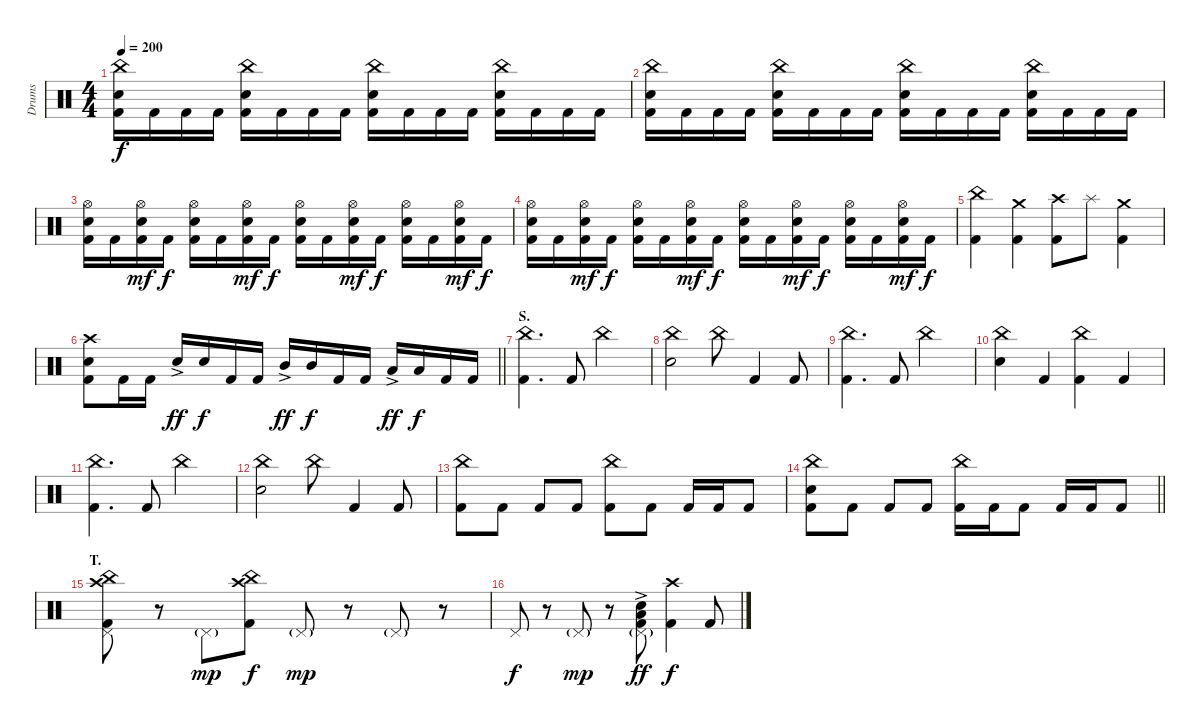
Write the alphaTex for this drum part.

\track ("Drums" "Drums") {instrument percussion}
\staff {score}
\articulation defaults
\ts (4 4)
\tempo 200
\clef neutral
\ks c
("China (hit)" "Electric Snare (hit)" "Kick (hit) 2").16{dy f} "Kick (hit) 2".16 "Kick (hit) 2".16 "Kick (hit) 2".16 ("China (hit)" "Electric Snare (hit)" "Kick (hit) 2").16 "Kick (hit) 2".16 "Kick (hit) 2".16 "Kick (hit) 2".16 ("China (hit)" "Electric Snare (hit)" "Kick (hit) 2").16 "Kick (hit) 2".16 "Kick (hit) 2".16 "Kick (hit) 2".16 ("China (hit)" "Electric Snare (hit)" "Kick (hit) 2").16 "Kick (hit) 2".16 "Kick (hit) 2".16 "Kick (hit) 2".16 |
("China (hit)" "Electric Snare (hit)" "Kick (hit) 2").16 "Kick (hit) 2".16 "Kick (hit) 2".16 "Kick (hit) 2".16 ("China (hit)" "Electric Snare (hit)" "Kick (hit) 2").16 "Kick (hit) 2".16 "Kick (hit) 2".16 "Kick (hit) 2".16 ("China (hit)" "Electric Snare (hit)" "Kick (hit) 2").16 "Kick (hit) 2".16 "Kick (hit) 2".16 "Kick (hit) 2".16 ("China (hit)" "Electric Snare (hit)" "Kick (hit) 2").16 "Kick (hit) 2".16 "Kick (hit) 2".16 "Kick (hit) 2".16 |
("Hi-Hat (open)" "Electric Snare (hit)" "Kick (hit) 2").16 "Kick (hit) 2".16 ("Hi-Hat (open)" "Electric Snare (hit)" "Kick (hit) 2").16{dy mf} "Kick (hit) 2".16{dy f} ("Hi-Hat (open)" "Electric Snare (hit)" "Kick (hit) 2").16 "Kick (hit) 2".16 ("Hi-Hat (open)" "Electric Snare (hit)" "Kick (hit) 2").16{dy mf} "Kick (hit) 2".16{dy f} ("Hi-Hat (open)" "Electric Snare (hit)" "Kick (hit) 2").16 "Kick (hit) 2".16 ("Hi-Hat (open)" "Electric Snare (hit)" "Kick (hit) 2").16{dy mf} "Kick (hit) 2".16{dy f} ("Hi-Hat (open)" "Electric Snare (hit)" "Kick (hit) 2").16 "Kick (hit) 2".16 ("Hi-Hat (open)" "Electric Snare (hit)" "Kick (hit) 2").16{dy mf} "Kick (hit) 2".16{dy f} |
("Hi-Hat (open)" "Electric Snare (hit)" "Kick (hit) 2").16 "Kick (hit) 2".16 ("Hi-Hat (open)" "Electric Snare (hit)" "Kick (hit) 2").16{dy mf} "Kick (hit) 2".16{dy f} ("Hi-Hat (open)" "Electric Snare (hit)" "Kick (hit) 2").16 "Kick (hit) 2".16 ("Hi-Hat (open)" "Electric Snare (hit)" "Kick (hit) 2").16{dy mf} "Kick (hit) 2".16{dy f} ("Hi-Hat (open)" "Electric Snare (hit)" "Kick (hit) 2").16 "Kick (hit) 2".16 ("Hi-Hat (open)" "Electric Snare (hit)" "Kick (hit) 2").16{dy mf} "Kick (hit) 2".16{dy f} ("Hi-Hat (open)" "Electric Snare (hit)" "Kick (hit) 2").16 "Kick (hit) 2".16 ("Hi-Hat (open)" "Electric Snare (hit)" "Kick (hit) 2").16{dy mf} "Kick (hit) 2".16{dy f} |
("China (hit)" "Kick (hit) 2").4 ("Crash medium (hit)" "Kick (hit) 2").4 ("Crash high (hit)" "Kick (hit) 2").8 "Splash (hit)".8 ("Crash medium (hit)" "Kick (hit) 2").4 |
\barLineRight lightlight
("Crash high (hit)" "Electric Snare (hit)" "Kick (hit) 2").8 "Kick (hit) 2".16 "Kick (hit) 2".16 "Electric Snare (hit)"{ac}.16{dy ff} "Electric Snare (hit)".16{dy f} "Kick (hit) 2".16 "Kick (hit) 2".16 "Mid Tom (hit)"{ac}.16{dy ff} "Mid Tom (hit)".16{dy f} "Kick (hit) 2".16 "Kick (hit) 2".16 "Low Tom (hit)"{ac}.16{dy ff} "Low Tom (hit)".16{dy f} "Kick (hit) 2".16 "Kick (hit) 2".16 |
\section ("" "S.")
("China (hit)" "Kick (hit) 2").4{d} "Kick (hit) 2".8 "China (hit)".2 |
("China (hit)" "Electric Snare (hit)").2 "China (hit)".8 "Kick (hit) 2".4 "Kick (hit) 2".8 |
("China (hit)" "Kick (hit) 2").4{d} "Kick (hit) 2".8 "China (hit)".2 |
("China (hit)" "Electric Snare (hit)").4 "Kick (hit) 2".4 ("China (hit)" "Kick (hit) 2").4 "Kick (hit) 2".4 |
("China (hit)" "Kick (hit) 2").4{d} "Kick (hit) 2".8 "China (hit)".2 |
("China (hit)" "Electric Snare (hit)").2 "China (hit)".8 "Kick (hit) 2".4 "Kick (hit) 2".8 |
("China (hit)" "Kick (hit) 2").8 "Kick (hit) 2".8 "Kick (hit) 2".8 "Kick (hit) 2".8 ("China (hit)" "Kick (hit) 2").8 "Kick (hit) 2".8 "Kick (hit) 2".16 "Kick (hit) 2".16 "Kick (hit) 2".8 |
\barLineRight lightlight
("China (hit)" "Electric Snare (hit)" "Kick (hit) 2").8 "Kick (hit) 2".8 "Kick (hit) 2".8 "Kick (hit) 2".8 ("China (hit)" "Kick (hit) 2").16 "Kick (hit) 2".16 "Kick (hit) 2".8 "Kick (hit) 2".16 "Kick (hit) 2".16 "Kick (hit) 2".8 |
\section ("" "T.")
("China (hit)" "Crash high (hit)" "Pedal Hi-Hat (hit)" "Kick (hit) 2").8 r.8 "Pedal Hi-Hat (hit)"{g}.8{dy mp} ("China (hit)" "Crash high (hit)" "Kick (hit) 2").8{dy f} "Pedal Hi-Hat (hit)"{g}.8{dy mp} r.8 "Pedal Hi-Hat (hit)"{g}.8 r.8 |
"Pedal Hi-Hat (hit)".8{dy f} r.8 "Pedal Hi-Hat (hit)"{g}.8{dy mp} r.8 ("Pedal Hi-Hat (hit)"{g} "Electric Snare (hit)" "Low Floor Tom (hit)"{ac} "Kick (hit) 2").8{dy ff} ("Crash high (hit)" "Kick (hit) 2").4{dy f} "Kick (hit) 2".8
